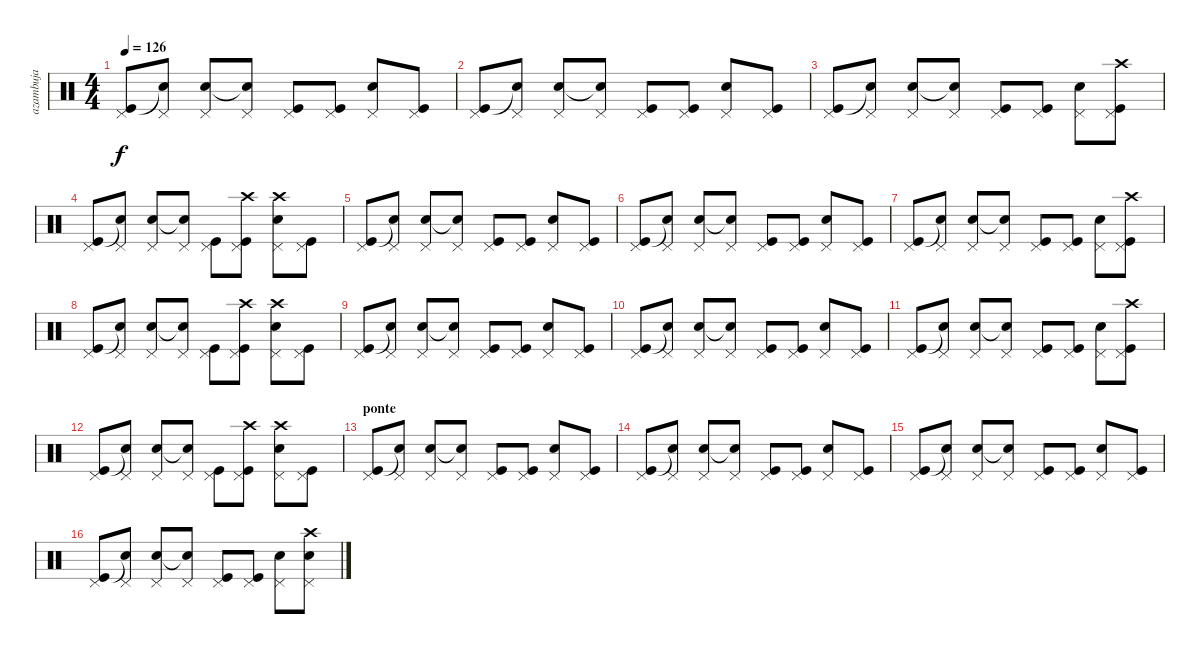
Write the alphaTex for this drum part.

\track ("azambuja" "azambuja") {instrument percussion}
\staff {score}
\articulation defaults
\ts (4 4)
\tempo 126
\clef neutral
\ks c
("Pedal Hi-Hat (hit)" "Kick (hit)").8{dy f} ("Pedal Hi-Hat (hit)" "Snare (hit)"{t}).8 ("Pedal Hi-Hat (hit)" "Snare (hit) 2").8 ("Pedal Hi-Hat (hit)" "Snare (hit) 2"{t}).8 ("Pedal Hi-Hat (hit)" "Kick (hit)").8 ("Pedal Hi-Hat (hit)" "Kick (hit)").8 ("Pedal Hi-Hat (hit)" "Snare (hit) 2").8 ("Pedal Hi-Hat (hit)" "Kick (hit)").8 |
("Pedal Hi-Hat (hit)" "Kick (hit)").8 ("Pedal Hi-Hat (hit)" "Snare (hit)"{t}).8 ("Pedal Hi-Hat (hit)" "Snare (hit) 2").8 ("Pedal Hi-Hat (hit)" "Snare (hit) 2"{t}).8 ("Pedal Hi-Hat (hit)" "Kick (hit)").8 ("Pedal Hi-Hat (hit)" "Kick (hit)").8 ("Pedal Hi-Hat (hit)" "Snare (hit) 2").8 ("Pedal Hi-Hat (hit)" "Kick (hit)").8 |
("Pedal Hi-Hat (hit)" "Kick (hit)").8 ("Pedal Hi-Hat (hit)" "Snare (hit)"{t}).8 ("Pedal Hi-Hat (hit)" "Snare (hit) 2").8 ("Pedal Hi-Hat (hit)" "Snare (hit) 2"{t}).8 ("Pedal Hi-Hat (hit)" "Kick (hit)").8 ("Pedal Hi-Hat (hit)" "Kick (hit)").8 ("Pedal Hi-Hat (hit)" "Snare (hit) 2").8 ("Crash high (hit)" "Pedal Hi-Hat (hit)" "Kick (hit)").8 |
("Pedal Hi-Hat (hit)" "Kick (hit)").8 ("Pedal Hi-Hat (hit)" "Snare (hit)"{t}).8 ("Pedal Hi-Hat (hit)" "Snare (hit) 2").8 ("Pedal Hi-Hat (hit)" "Snare (hit) 2"{t}).8 ("Pedal Hi-Hat (hit)" "Kick (hit)").8 ("Crash high (hit)" "Pedal Hi-Hat (hit)" "Kick (hit)").8 ("Crash high (hit)" "Pedal Hi-Hat (hit)" "Snare (hit) 2").8 ("Pedal Hi-Hat (hit)" "Kick (hit)").8 |
\section ("" "")
("Pedal Hi-Hat (hit)" "Kick (hit)").8 ("Pedal Hi-Hat (hit)" "Snare (hit)"{t}).8 ("Pedal Hi-Hat (hit)" "Snare (hit) 2").8 ("Pedal Hi-Hat (hit)" "Snare (hit) 2"{t}).8 ("Pedal Hi-Hat (hit)" "Kick (hit)").8 ("Pedal Hi-Hat (hit)" "Kick (hit)").8 ("Pedal Hi-Hat (hit)" "Snare (hit) 2").8 ("Pedal Hi-Hat (hit)" "Kick (hit)").8 |
("Pedal Hi-Hat (hit)" "Kick (hit)").8 ("Pedal Hi-Hat (hit)" "Snare (hit)"{t}).8 ("Pedal Hi-Hat (hit)" "Snare (hit) 2").8 ("Pedal Hi-Hat (hit)" "Snare (hit) 2"{t}).8 ("Pedal Hi-Hat (hit)" "Kick (hit)").8 ("Pedal Hi-Hat (hit)" "Kick (hit)").8 ("Pedal Hi-Hat (hit)" "Snare (hit) 2").8 ("Pedal Hi-Hat (hit)" "Kick (hit)").8 |
("Pedal Hi-Hat (hit)" "Kick (hit)").8 ("Pedal Hi-Hat (hit)" "Snare (hit)"{t}).8 ("Pedal Hi-Hat (hit)" "Snare (hit) 2").8 ("Pedal Hi-Hat (hit)" "Snare (hit) 2"{t}).8 ("Pedal Hi-Hat (hit)" "Kick (hit)").8 ("Pedal Hi-Hat (hit)" "Kick (hit)").8 ("Pedal Hi-Hat (hit)" "Snare (hit) 2").8 ("Crash high (hit)" "Pedal Hi-Hat (hit)" "Kick (hit)").8 |
("Pedal Hi-Hat (hit)" "Kick (hit)").8 ("Pedal Hi-Hat (hit)" "Snare (hit)"{t}).8 ("Pedal Hi-Hat (hit)" "Snare (hit) 2").8 ("Pedal Hi-Hat (hit)" "Snare (hit) 2"{t}).8 ("Pedal Hi-Hat (hit)" "Kick (hit)").8 ("Crash high (hit)" "Pedal Hi-Hat (hit)" "Kick (hit)").8 ("Crash high (hit)" "Pedal Hi-Hat (hit)" "Snare (hit) 2").8 ("Pedal Hi-Hat (hit)" "Kick (hit)").8 |
("Pedal Hi-Hat (hit)" "Kick (hit)").8 ("Pedal Hi-Hat (hit)" "Snare (hit)"{t}).8 ("Pedal Hi-Hat (hit)" "Snare (hit) 2").8 ("Pedal Hi-Hat (hit)" "Snare (hit) 2"{t}).8 ("Pedal Hi-Hat (hit)" "Kick (hit)").8 ("Pedal Hi-Hat (hit)" "Kick (hit)").8 ("Pedal Hi-Hat (hit)" "Snare (hit) 2").8 ("Pedal Hi-Hat (hit)" "Kick (hit)").8 |
("Pedal Hi-Hat (hit)" "Kick (hit)").8 ("Pedal Hi-Hat (hit)" "Snare (hit)"{t}).8 ("Pedal Hi-Hat (hit)" "Snare (hit) 2").8 ("Pedal Hi-Hat (hit)" "Snare (hit) 2"{t}).8 ("Pedal Hi-Hat (hit)" "Kick (hit)").8 ("Pedal Hi-Hat (hit)" "Kick (hit)").8 ("Pedal Hi-Hat (hit)" "Snare (hit) 2").8 ("Pedal Hi-Hat (hit)" "Kick (hit)").8 |
("Pedal Hi-Hat (hit)" "Kick (hit)").8 ("Pedal Hi-Hat (hit)" "Snare (hit)"{t}).8 ("Pedal Hi-Hat (hit)" "Snare (hit) 2").8 ("Pedal Hi-Hat (hit)" "Snare (hit) 2"{t}).8 ("Pedal Hi-Hat (hit)" "Kick (hit)").8 ("Pedal Hi-Hat (hit)" "Kick (hit)").8 ("Pedal Hi-Hat (hit)" "Snare (hit) 2").8 ("Crash high (hit)" "Pedal Hi-Hat (hit)" "Kick (hit)").8 |
("Pedal Hi-Hat (hit)" "Kick (hit)").8 ("Pedal Hi-Hat (hit)" "Snare (hit)"{t}).8 ("Pedal Hi-Hat (hit)" "Snare (hit) 2").8 ("Pedal Hi-Hat (hit)" "Snare (hit) 2"{t}).8 ("Pedal Hi-Hat (hit)" "Kick (hit)").8 ("Crash high (hit)" "Pedal Hi-Hat (hit)" "Kick (hit)").8 ("Crash high (hit)" "Pedal Hi-Hat (hit)" "Snare (hit) 2").8 ("Pedal Hi-Hat (hit)" "Kick (hit)").8 |
\section ("" "ponte")
("Pedal Hi-Hat (hit)" "Kick (hit)").8 ("Pedal Hi-Hat (hit)" "Snare (hit)"{t}).8 ("Pedal Hi-Hat (hit)" "Snare (hit) 2").8 ("Pedal Hi-Hat (hit)" "Snare (hit) 2"{t}).8 ("Pedal Hi-Hat (hit)" "Kick (hit)").8 ("Pedal Hi-Hat (hit)" "Kick (hit)").8 ("Pedal Hi-Hat (hit)" "Snare (hit) 2").8 ("Pedal Hi-Hat (hit)" "Kick (hit)").8 |
("Pedal Hi-Hat (hit)" "Kick (hit)").8 ("Pedal Hi-Hat (hit)" "Snare (hit)"{t}).8 ("Pedal Hi-Hat (hit)" "Snare (hit) 2").8 ("Pedal Hi-Hat (hit)" "Snare (hit) 2"{t}).8 ("Pedal Hi-Hat (hit)" "Kick (hit)").8 ("Pedal Hi-Hat (hit)" "Kick (hit)").8 ("Pedal Hi-Hat (hit)" "Snare (hit) 2").8 ("Pedal Hi-Hat (hit)" "Kick (hit)").8 |
("Pedal Hi-Hat (hit)" "Kick (hit)").8 ("Pedal Hi-Hat (hit)" "Snare (hit)"{t}).8 ("Pedal Hi-Hat (hit)" "Snare (hit) 2").8 ("Pedal Hi-Hat (hit)" "Snare (hit) 2"{t}).8 ("Pedal Hi-Hat (hit)" "Kick (hit)").8 ("Pedal Hi-Hat (hit)" "Kick (hit)").8 ("Pedal Hi-Hat (hit)" "Snare (hit) 2").8 ("Pedal Hi-Hat (hit)" "Kick (hit)").8 |
("Pedal Hi-Hat (hit)" "Kick (hit)").8 ("Pedal Hi-Hat (hit)" "Snare (hit)"{t}).8 ("Pedal Hi-Hat (hit)" "Snare (hit) 2").8 ("Pedal Hi-Hat (hit)" "Snare (hit) 2"{t}).8 ("Pedal Hi-Hat (hit)" "Kick (hit)").8 ("Pedal Hi-Hat (hit)" "Kick (hit)").8 ("Pedal Hi-Hat (hit)" "Snare (hit) 2").8 ("Crash high (hit)" "Pedal Hi-Hat (hit)" "Snare (hit) 2").8
